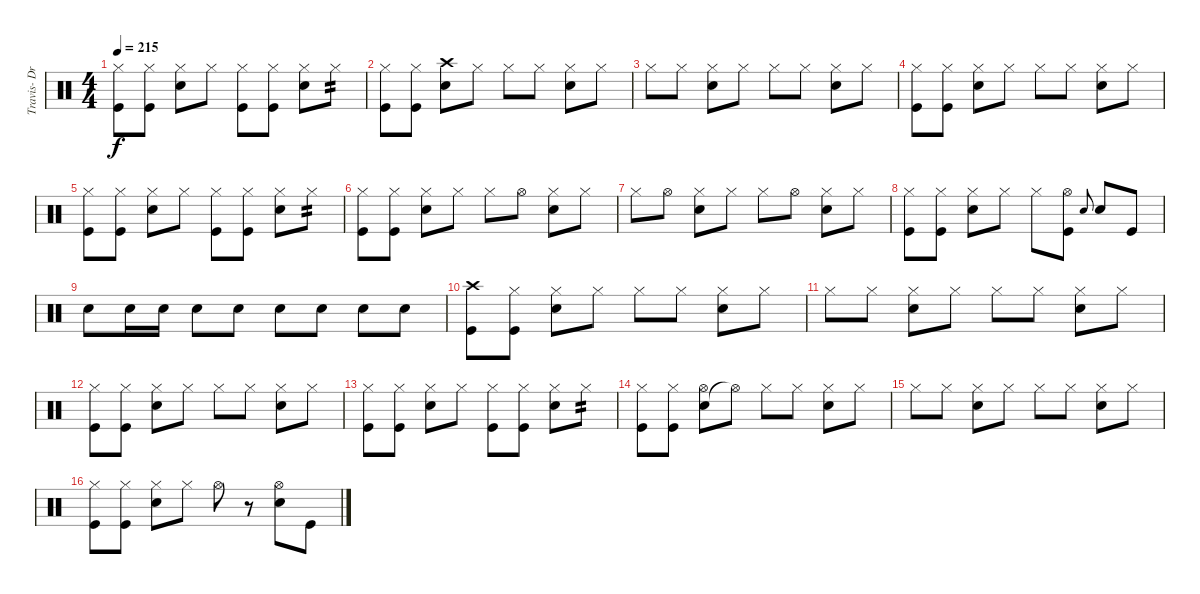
\track ("Travis- Drums" "Travis- Dr") {instrument percussion}
\staff {score}
\articulation defaults
\ts (4 4)
\tempo 215
\clef neutral
\ks c
("Kick (hit)" "Hi-Hat (closed)").8{dy f} ("Kick (hit)" "Hi-Hat (closed)").8 ("Electric Snare (hit)" "Hi-Hat (closed)").8 "Hi-Hat (closed)".8 ("Kick (hit)" "Hi-Hat (closed)").8 ("Kick (hit)" "Hi-Hat (closed)").8 ("Electric Snare (hit)" "Hi-Hat (closed)").8 "Hi-Hat (closed)".8{tp 2} |
("Kick (hit)" "Hi-Hat (closed)").8 ("Kick (hit)" "Hi-Hat (closed)").8 ("Electric Snare (hit)" "Crash high (hit)").8 "Hi-Hat (closed)".8 "Hi-Hat (closed)".8 "Hi-Hat (closed)".8 ("Electric Snare (hit)" "Hi-Hat (closed)").8 "Hi-Hat (closed)".8 |
"Hi-Hat (closed)".8 "Hi-Hat (closed)".8 ("Electric Snare (hit)" "Hi-Hat (closed)").8 "Hi-Hat (closed)".8 "Hi-Hat (closed)".8 "Hi-Hat (closed)".8 ("Electric Snare (hit)" "Hi-Hat (closed)").8 "Hi-Hat (closed)".8 |
("Kick (hit)" "Hi-Hat (closed)").8 ("Kick (hit)" "Hi-Hat (closed)").8 ("Electric Snare (hit)" "Hi-Hat (closed)").8 "Hi-Hat (closed)".8 "Hi-Hat (closed)".8 "Hi-Hat (closed)".8 ("Electric Snare (hit)" "Hi-Hat (closed)").8 "Hi-Hat (closed)".8 |
("Kick (hit)" "Hi-Hat (closed)").8 ("Kick (hit)" "Hi-Hat (closed)").8 ("Electric Snare (hit)" "Hi-Hat (closed)").8 "Hi-Hat (closed)".8 ("Kick (hit)" "Hi-Hat (closed)").8 ("Kick (hit)" "Hi-Hat (closed)").8 ("Electric Snare (hit)" "Hi-Hat (closed)").8 "Hi-Hat (closed)".8{tp 2} |
("Kick (hit)" "Hi-Hat (closed)").8 ("Kick (hit)" "Hi-Hat (closed)").8 ("Electric Snare (hit)" "Hi-Hat (closed)").8 "Hi-Hat (closed)".8 "Hi-Hat (closed)".8 "Hi-Hat (open)".8 ("Electric Snare (hit)" "Hi-Hat (closed)").8 "Hi-Hat (closed)".8 |
"Hi-Hat (closed)".8 "Hi-Hat (open)".8 ("Electric Snare (hit)" "Hi-Hat (closed)").8 "Hi-Hat (closed)".8 "Hi-Hat (closed)".8 "Hi-Hat (open)".8 ("Electric Snare (hit)" "Hi-Hat (closed)").8 "Hi-Hat (closed)".8 |
("Kick (hit)" "Hi-Hat (closed)").8 ("Kick (hit)" "Hi-Hat (closed)").8 ("Electric Snare (hit)" "Hi-Hat (closed)").8 "Hi-Hat (closed)".8 "Hi-Hat (closed)".8 ("Kick (hit)" "Hi-Hat (open)").8 "Electric Snare (hit)".8{gr onbeat} "Electric Snare (hit)".8 "Kick (hit)".8 |
"Electric Snare (hit)".8 "Electric Snare (hit)".16 "Electric Snare (hit)".16 "Electric Snare (hit)".8 "Electric Snare (hit)".8 "Electric Snare (hit)".8 "Electric Snare (hit)".8 "Electric Snare (hit)".8 "Electric Snare (hit)".8 |
("Kick (hit)" "Crash high (hit)").8 ("Kick (hit)" "Hi-Hat (closed)").8 ("Electric Snare (hit)" "Hi-Hat (closed)").8 "Hi-Hat (closed)".8 "Hi-Hat (closed)".8 "Hi-Hat (closed)".8 ("Electric Snare (hit)" "Hi-Hat (closed)").8 "Hi-Hat (closed)".8 |
"Hi-Hat (closed)".8 "Hi-Hat (closed)".8 ("Electric Snare (hit)" "Hi-Hat (closed)").8 "Hi-Hat (closed)".8 "Hi-Hat (closed)".8 "Hi-Hat (closed)".8 ("Electric Snare (hit)" "Hi-Hat (closed)").8 "Hi-Hat (closed)".8 |
("Kick (hit)" "Hi-Hat (closed)").8 ("Kick (hit)" "Hi-Hat (closed)").8 ("Electric Snare (hit)" "Hi-Hat (closed)").8 "Hi-Hat (closed)".8 "Hi-Hat (closed)".8 "Hi-Hat (closed)".8 ("Electric Snare (hit)" "Hi-Hat (closed)").8 "Hi-Hat (closed)".8 |
("Kick (hit)" "Hi-Hat (closed)").8 ("Kick (hit)" "Hi-Hat (closed)").8 ("Electric Snare (hit)" "Hi-Hat (closed)").8 "Hi-Hat (closed)".8 ("Kick (hit)" "Hi-Hat (closed)").8 ("Kick (hit)" "Hi-Hat (closed)").8 ("Electric Snare (hit)" "Hi-Hat (closed)").8 "Hi-Hat (closed)".8{tp 2} |
("Kick (hit)" "Hi-Hat (closed)").8 ("Kick (hit)" "Hi-Hat (closed)").8 ("Electric Snare (hit)" "Hi-Hat (open)").8 "Hi-Hat (open)"{t}.8 "Hi-Hat (closed)".8 "Hi-Hat (closed)".8 ("Electric Snare (hit)" "Hi-Hat (closed)").8 "Hi-Hat (closed)".8 |
"Hi-Hat (closed)".8 "Hi-Hat (closed)".8 ("Electric Snare (hit)" "Hi-Hat (closed)").8 "Hi-Hat (closed)".8 "Hi-Hat (closed)".8 "Hi-Hat (closed)".8 ("Electric Snare (hit)" "Hi-Hat (closed)").8 "Hi-Hat (closed)".8 |
("Kick (hit)" "Hi-Hat (closed)").8 ("Kick (hit)" "Hi-Hat (closed)").8 ("Electric Snare (hit)" "Hi-Hat (closed)").8 "Hi-Hat (closed)".8 "Hi-Hat (open)".8 r.8 ("Electric Snare (hit)" "Hi-Hat (open)").8 "Kick (hit)".8
